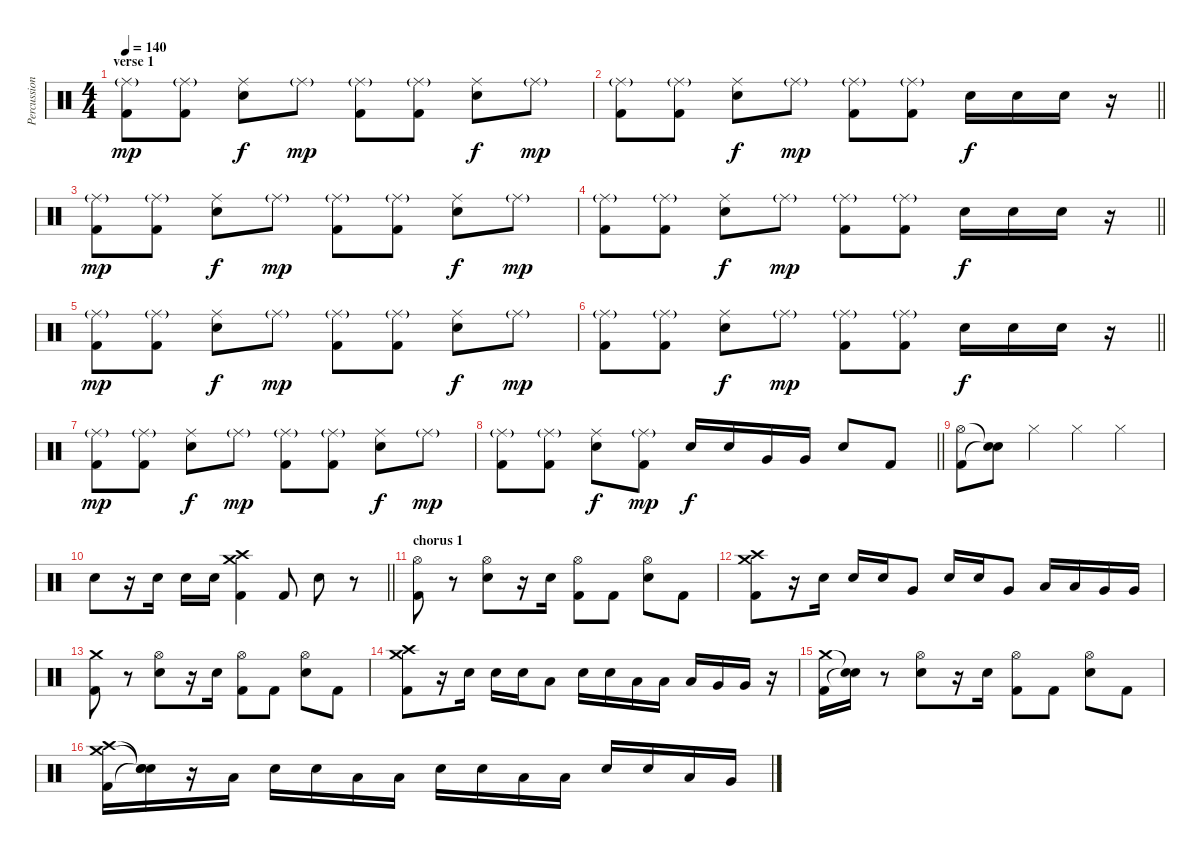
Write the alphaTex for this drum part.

\track ("Percussion" "Percussion") {instrument percussion}
\staff {score}
\articulation defaults
\ts (4 4)
\section ("" "verse 1")
\tempo 140
\clef neutral
\ks c
("Kick (hit) 2" "Ride (middle)"{g}).8{dy mp} ("Kick (hit) 2" "Ride (middle)"{g}).8 ("Electric Snare (hit)" "Ride (middle)").8{dy f} "Ride (middle)"{g}.8{dy mp} ("Kick (hit) 2" "Ride (middle)"{g}).8 ("Kick (hit) 2" "Ride (middle)"{g}).8 ("Electric Snare (hit)" "Ride (middle)").8{dy f} "Ride (middle)"{g}.8{dy mp} |
\barLineRight lightlight
("Kick (hit) 2" "Ride (middle)"{g}).8 ("Kick (hit) 2" "Ride (middle)"{g}).8 ("Electric Snare (hit)" "Ride (middle)").8{dy f} "Ride (middle)"{g}.8{dy mp} ("Kick (hit) 2" "Ride (middle)"{g}).8 ("Kick (hit) 2" "Ride (middle)"{g}).8 "Electric Snare (hit)".16{dy f} "Electric Snare (hit)".16 "Electric Snare (hit)".16 r.16 |
("Kick (hit) 2" "Ride (middle)"{g}).8{dy mp} ("Kick (hit) 2" "Ride (middle)"{g}).8 ("Electric Snare (hit)" "Ride (middle)").8{dy f} "Ride (middle)"{g}.8{dy mp} ("Kick (hit) 2" "Ride (middle)"{g}).8 ("Kick (hit) 2" "Ride (middle)"{g}).8 ("Electric Snare (hit)" "Ride (middle)").8{dy f} "Ride (middle)"{g}.8{dy mp} |
\barLineRight lightlight
("Kick (hit) 2" "Ride (middle)"{g}).8 ("Kick (hit) 2" "Ride (middle)"{g}).8 ("Electric Snare (hit)" "Ride (middle)").8{dy f} "Ride (middle)"{g}.8{dy mp} ("Kick (hit) 2" "Ride (middle)"{g}).8 ("Kick (hit) 2" "Ride (middle)"{g}).8 "Electric Snare (hit)".16{dy f} "Electric Snare (hit)".16 "Electric Snare (hit)".16 r.16 |
("Kick (hit) 2" "Ride (middle)"{g}).8{dy mp} ("Kick (hit) 2" "Ride (middle)"{g}).8 ("Electric Snare (hit)" "Ride (middle)").8{dy f} "Ride (middle)"{g}.8{dy mp} ("Kick (hit) 2" "Ride (middle)"{g}).8 ("Kick (hit) 2" "Ride (middle)"{g}).8 ("Electric Snare (hit)" "Ride (middle)").8{dy f} "Ride (middle)"{g}.8{dy mp} |
\barLineRight lightlight
("Kick (hit) 2" "Ride (middle)"{g}).8 ("Kick (hit) 2" "Ride (middle)"{g}).8 ("Electric Snare (hit)" "Ride (middle)").8{dy f} "Ride (middle)"{g}.8{dy mp} ("Kick (hit) 2" "Ride (middle)"{g}).8 ("Kick (hit) 2" "Ride (middle)"{g}).8 "Electric Snare (hit)".16{dy f} "Electric Snare (hit)".16 "Electric Snare (hit)".16 r.16 |
("Kick (hit) 2" "Ride (middle)"{g}).8{dy mp} ("Kick (hit) 2" "Ride (middle)"{g}).8 ("Electric Snare (hit)" "Ride (middle)").8{dy f} "Ride (middle)"{g}.8{dy mp} ("Kick (hit) 2" "Ride (middle)"{g}).8 ("Kick (hit) 2" "Ride (middle)"{g}).8 ("Electric Snare (hit)" "Ride (middle)").8{dy f} "Ride (middle)"{g}.8{dy mp} |
\barLineRight lightlight
("Kick (hit) 2" "Ride (middle)"{g}).8 ("Kick (hit) 2" "Ride (middle)"{g}).8 ("Electric Snare (hit)" "Ride (middle)").8{dy f} ("Kick (hit) 2" "Ride (middle)"{g}).8{dy mp} "Electric Snare (hit)".16{dy f} "Electric Snare (hit)".16 "Very Low Tom (hit)".16 "Very Low Tom (hit)".16 "Electric Snare (hit)".8 "Kick (hit) 2".8 |
("Kick (hit) 2" "Hi-Hat (open)").8 ("Snare (hit)"{t} "Snare (hit)"{t}).8 "Hi-Hat (closed)".4 "Hi-Hat (closed)".4 "Hi-Hat (closed)".4 |
\barLineRight lightlight "Electric Snare (hit)".8
r.16 "Electric Snare (hit)".16 "Electric Snare (hit)".16 "Electric Snare (hit)".16 ("Crash medium (hit)" "Crash high (hit)" "Kick (hit) 2").4 "Kick (hit) 2".8 "Electric Snare (hit)".8 r.8 |
\section ("" "chorus 1")
("Kick (hit) 2" "Hi-Hat (open)").8 r.8 ("Electric Snare (hit)" "Hi-Hat (open)").8 r.16 "Electric Snare (hit)".16 ("Kick (hit) 2" "Hi-Hat (open)").8 "Kick (hit) 2".8 ("Electric Snare (hit)" "Hi-Hat (open)").8 "Kick (hit) 2".8 |
("Crash medium (hit)" "Crash high (hit)" "Kick (hit) 2").8 r.16 "Electric Snare (hit)".16 "Electric Snare (hit)".16 "Electric Snare (hit)".16 "Very Low Tom (hit)".8 "Electric Snare (hit)".16 "Electric Snare (hit)".16 "Very Low Tom (hit)".8 "Low Tom (hit)".16 "Low Tom (hit)".16 "Very Low Tom (hit)".16 "Very Low Tom (hit)".16 |
("Crash medium (hit)" "Kick (hit) 2").8 r.8 ("Electric Snare (hit)" "Hi-Hat (open)").8 r.16 "Electric Snare (hit)".16 ("Kick (hit) 2" "Hi-Hat (open)").8 "Kick (hit) 2".8 ("Electric Snare (hit)" "Hi-Hat (open)").8 "Kick (hit) 2".8 |
("Crash medium (hit)" "Crash high (hit)" "Kick (hit) 2").8 r.16 "Electric Snare (hit)".16 "Electric Snare (hit)".16 "Electric Snare (hit)".16 "Low Tom (hit)".8 "Electric Snare (hit)".16 "Electric Snare (hit)".16 "Low Tom (hit)".16 "Low Tom (hit)".16 "Low Tom (hit)".16 "Very Low Tom (hit)".16 "Very Low Tom (hit)".16 r.16 |
("Crash medium (hit)" "Kick (hit) 2").16 ("Snare (hit)"{t} "Snare (hit)"{t}).16 r.8 ("Electric Snare (hit)" "Hi-Hat (open)").8 r.16 "Electric Snare (hit)".16 ("Kick (hit) 2" "Hi-Hat (open)").8 "Kick (hit) 2".8 ("Electric Snare (hit)" "Hi-Hat (open)").8 "Kick (hit) 2".8 |
("Crash medium (hit)" "Crash high (hit)" "Kick (hit) 2").16 ("Snare (hit)"{t} "Snare (hit)"{t} "Snare (hit)"{t}).16 r.16 "Low Floor Tom (hit)".16 "Electric Snare (hit)".16 "Electric Snare (hit)".16 "Low Tom (hit)".16 "Low Floor Tom (hit)".16 "Electric Snare (hit)".16 "Electric Snare (hit)".16 "Low Tom (hit)".16 "Low Floor Tom (hit)".16 "Electric Snare (hit)".16 "Electric Snare (hit)".16 "Low Tom (hit)".16 "Very Low Tom (hit)".16
